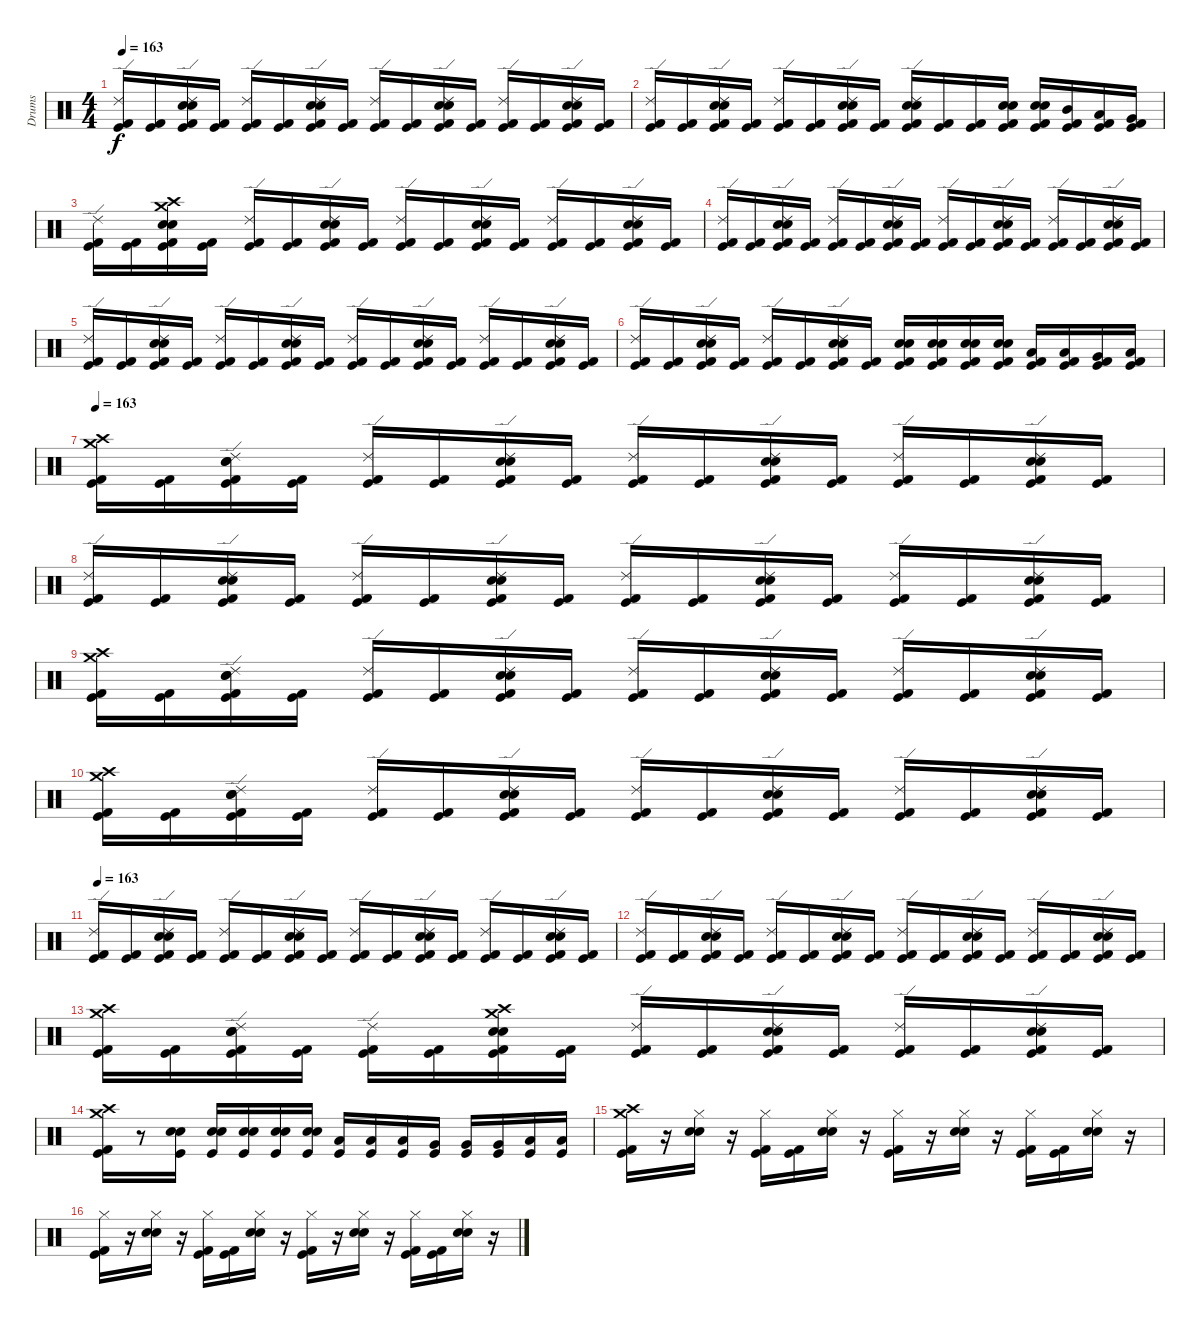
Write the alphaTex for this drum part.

\track ("Drums" "Drums") {instrument percussion}
\staff {score}
\articulation defaults
\ts (4 4)
\tempo 163
\clef neutral
\ks c
("Ride (edge) 2" "Kick (hit) 2" "Kick (hit)").16{dy f} ("Kick (hit) 2" "Kick (hit)").16 ("Ride (edge) 2" "Electric Snare (hit)" "Snare (hit) 2" "Kick (hit) 2" "Kick (hit)").16 ("Kick (hit) 2" "Kick (hit)").16 ("Ride (edge) 2" "Kick (hit) 2" "Kick (hit)").16 ("Kick (hit) 2" "Kick (hit)").16 ("Ride (edge) 2" "Electric Snare (hit)" "Snare (hit) 2" "Kick (hit) 2" "Kick (hit)").16 ("Kick (hit) 2" "Kick (hit)").16 ("Ride (edge) 2" "Kick (hit) 2" "Kick (hit)").16 ("Kick (hit) 2" "Kick (hit)").16 ("Ride (edge) 2" "Electric Snare (hit)" "Snare (hit) 2" "Kick (hit) 2" "Kick (hit)").16 ("Kick (hit) 2" "Kick (hit)").16 ("Ride (edge) 2" "Kick (hit) 2" "Kick (hit)").16 ("Kick (hit) 2" "Kick (hit)").16 ("Ride (edge) 2" "Electric Snare (hit)" "Snare (hit) 2" "Kick (hit) 2" "Kick (hit)").16 ("Kick (hit) 2" "Kick (hit)").16 |
("Ride (edge) 2" "Kick (hit) 2" "Kick (hit)").16 ("Kick (hit) 2" "Kick (hit)").16 ("Ride (edge) 2" "Electric Snare (hit)" "Snare (hit) 2" "Kick (hit) 2" "Kick (hit)").16 ("Kick (hit) 2" "Kick (hit)").16 ("Ride (edge) 2" "Kick (hit) 2" "Kick (hit)").16 ("Kick (hit) 2" "Kick (hit)").16 ("Ride (edge) 2" "Electric Snare (hit)" "Snare (hit) 2" "Kick (hit) 2" "Kick (hit)").16 ("Kick (hit) 2" "Kick (hit)").16 ("Electric Snare (hit)" "Snare (hit) 2" "Ride (edge) 2" "Kick (hit) 2" "Kick (hit)").16 ("Kick (hit) 2" "Kick (hit)").16 ("Kick (hit) 2" "Kick (hit)").16 ("Electric Snare (hit)" "Snare (hit) 2" "Kick (hit) 2" "Kick (hit)").16 ("Electric Snare (hit)" "Snare (hit) 2" "Kick (hit) 2" "Kick (hit)").16 ("Mid Tom (hit)" "Kick (hit) 2" "Kick (hit)").16 ("Low Tom (hit)" "Kick (hit) 2" "Kick (hit)").16 ("Very Low Tom (hit)" "Kick (hit) 2" "Kick (hit)").16 |
("Ride (edge) 2" "Kick (hit) 2" "Kick (hit)").16 ("Kick (hit) 2" "Kick (hit)").16 ("Crash high (hit)" "Crash medium (hit)" "Electric Snare (hit)" "Snare (hit) 2" "Kick (hit) 2" "Kick (hit)").16 ("Kick (hit) 2" "Kick (hit)").16 ("Ride (edge) 2" "Kick (hit) 2" "Kick (hit)").16 ("Kick (hit) 2" "Kick (hit)").16 ("Ride (edge) 2" "Electric Snare (hit)" "Snare (hit) 2" "Kick (hit) 2" "Kick (hit)").16 ("Kick (hit) 2" "Kick (hit)").16 ("Ride (edge) 2" "Kick (hit) 2" "Kick (hit)").16 ("Kick (hit) 2" "Kick (hit)").16 ("Ride (edge) 2" "Electric Snare (hit)" "Snare (hit) 2" "Kick (hit) 2" "Kick (hit)").16 ("Kick (hit) 2" "Kick (hit)").16 ("Ride (edge) 2" "Kick (hit) 2" "Kick (hit)").16 ("Kick (hit) 2" "Kick (hit)").16 ("Ride (edge) 2" "Electric Snare (hit)" "Snare (hit) 2" "Kick (hit) 2" "Kick (hit)").16 ("Kick (hit) 2" "Kick (hit)").16 |
("Ride (edge) 2" "Kick (hit) 2" "Kick (hit)").16 ("Kick (hit) 2" "Kick (hit)").16 ("Ride (edge) 2" "Electric Snare (hit)" "Snare (hit) 2" "Kick (hit) 2" "Kick (hit)").16 ("Kick (hit) 2" "Kick (hit)").16 ("Ride (edge) 2" "Kick (hit) 2" "Kick (hit)").16 ("Kick (hit) 2" "Kick (hit)").16 ("Ride (edge) 2" "Electric Snare (hit)" "Snare (hit) 2" "Kick (hit) 2" "Kick (hit)").16 ("Kick (hit) 2" "Kick (hit)").16 ("Ride (edge) 2" "Kick (hit) 2" "Kick (hit)").16 ("Kick (hit) 2" "Kick (hit)").16 ("Ride (edge) 2" "Electric Snare (hit)" "Snare (hit) 2" "Kick (hit) 2" "Kick (hit)").16 ("Kick (hit) 2" "Kick (hit)").16 ("Ride (edge) 2" "Kick (hit) 2" "Kick (hit)").16 ("Kick (hit) 2" "Kick (hit)").16 ("Ride (edge) 2" "Electric Snare (hit)" "Snare (hit) 2" "Kick (hit) 2" "Kick (hit)").16 ("Kick (hit) 2" "Kick (hit)").16 |
("Ride (edge) 2" "Kick (hit) 2" "Kick (hit)").16 ("Kick (hit) 2" "Kick (hit)").16 ("Ride (edge) 2" "Electric Snare (hit)" "Snare (hit) 2" "Kick (hit) 2" "Kick (hit)").16 ("Kick (hit) 2" "Kick (hit)").16 ("Ride (edge) 2" "Kick (hit) 2" "Kick (hit)").16 ("Kick (hit) 2" "Kick (hit)").16 ("Ride (edge) 2" "Electric Snare (hit)" "Snare (hit) 2" "Kick (hit) 2" "Kick (hit)").16 ("Kick (hit) 2" "Kick (hit)").16 ("Ride (edge) 2" "Kick (hit) 2" "Kick (hit)").16 ("Kick (hit) 2" "Kick (hit)").16 ("Ride (edge) 2" "Electric Snare (hit)" "Snare (hit) 2" "Kick (hit) 2" "Kick (hit)").16 ("Kick (hit) 2" "Kick (hit)").16 ("Ride (edge) 2" "Kick (hit) 2" "Kick (hit)").16 ("Kick (hit) 2" "Kick (hit)").16 ("Ride (edge) 2" "Electric Snare (hit)" "Snare (hit) 2" "Kick (hit) 2" "Kick (hit)").16 ("Kick (hit) 2" "Kick (hit)").16 |
("Ride (edge) 2" "Kick (hit) 2" "Kick (hit)").16 ("Kick (hit) 2" "Kick (hit)").16 ("Ride (edge) 2" "Electric Snare (hit)" "Snare (hit) 2" "Kick (hit) 2" "Kick (hit)").16 ("Kick (hit) 2" "Kick (hit)").16 ("Ride (edge) 2" "Kick (hit) 2" "Kick (hit)").16 ("Kick (hit) 2" "Kick (hit)").16 ("Ride (edge) 2" "Electric Snare (hit)" "Snare (hit) 2" "Kick (hit) 2" "Kick (hit)").16 ("Kick (hit) 2" "Kick (hit)").16 ("Electric Snare (hit)" "Snare (hit) 2" "Kick (hit) 2" "Kick (hit)").16 ("Electric Snare (hit)" "Snare (hit) 2" "Kick (hit) 2" "Kick (hit)").16 ("Electric Snare (hit)" "Snare (hit) 2" "Kick (hit) 2" "Kick (hit)").16 ("Electric Snare (hit)" "Snare (hit) 2" "Kick (hit) 2" "Kick (hit)").16 ("Low Tom (hit)" "Kick (hit) 2" "Kick (hit)").16 ("Low Tom (hit)" "Kick (hit) 2" "Kick (hit)").16 ("Very Low Tom (hit)" "Kick (hit) 2" "Kick (hit)").16 ("Low Floor Tom (hit)" "Kick (hit) 2" "Kick (hit)").16 |
\tempo 163
("Crash high (hit)" "Crash medium (hit)" "Kick (hit) 2" "Kick (hit)").16 ("Kick (hit) 2" "Kick (hit)").16 ("Ride (edge) 2" "Electric Snare (hit)" "Snare (hit) 2" "Kick (hit) 2" "Kick (hit)").16 ("Kick (hit) 2" "Kick (hit)").16 ("Ride (edge) 2" "Kick (hit) 2" "Kick (hit)").16 ("Kick (hit) 2" "Kick (hit)").16 ("Ride (edge) 2" "Electric Snare (hit)" "Snare (hit) 2" "Kick (hit) 2" "Kick (hit)").16 ("Kick (hit) 2" "Kick (hit)").16 ("Ride (edge) 2" "Kick (hit) 2" "Kick (hit)").16 ("Kick (hit) 2" "Kick (hit)").16 ("Ride (edge) 2" "Electric Snare (hit)" "Snare (hit) 2" "Kick (hit) 2" "Kick (hit)").16 ("Kick (hit) 2" "Kick (hit)").16 ("Ride (edge) 2" "Kick (hit) 2" "Kick (hit)").16 ("Kick (hit) 2" "Kick (hit)").16 ("Ride (edge) 2" "Electric Snare (hit)" "Snare (hit) 2" "Kick (hit) 2" "Kick (hit)").16 ("Kick (hit) 2" "Kick (hit)").16 |
("Ride (edge) 2" "Kick (hit) 2" "Kick (hit)").16 ("Kick (hit) 2" "Kick (hit)").16 ("Ride (edge) 2" "Electric Snare (hit)" "Snare (hit) 2" "Kick (hit) 2" "Kick (hit)").16 ("Kick (hit) 2" "Kick (hit)").16 ("Ride (edge) 2" "Kick (hit) 2" "Kick (hit)").16 ("Kick (hit) 2" "Kick (hit)").16 ("Ride (edge) 2" "Electric Snare (hit)" "Snare (hit) 2" "Kick (hit) 2" "Kick (hit)").16 ("Kick (hit) 2" "Kick (hit)").16 ("Ride (edge) 2" "Kick (hit) 2" "Kick (hit)").16 ("Kick (hit) 2" "Kick (hit)").16 ("Ride (edge) 2" "Electric Snare (hit)" "Snare (hit) 2" "Kick (hit) 2" "Kick (hit)").16 ("Kick (hit) 2" "Kick (hit)").16 ("Ride (edge) 2" "Kick (hit) 2" "Kick (hit)").16 ("Kick (hit) 2" "Kick (hit)").16 ("Ride (edge) 2" "Electric Snare (hit)" "Snare (hit) 2" "Kick (hit) 2" "Kick (hit)").16 ("Kick (hit) 2" "Kick (hit)").16 |
("Crash high (hit)" "Crash medium (hit)" "Kick (hit) 2" "Kick (hit)").16 ("Kick (hit) 2" "Kick (hit)").16 ("Ride (edge) 2" "Electric Snare (hit)" "Snare (hit) 2" "Kick (hit) 2" "Kick (hit)").16 ("Kick (hit) 2" "Kick (hit)").16 ("Ride (edge) 2" "Kick (hit) 2" "Kick (hit)").16 ("Kick (hit) 2" "Kick (hit)").16 ("Ride (edge) 2" "Electric Snare (hit)" "Snare (hit) 2" "Kick (hit) 2" "Kick (hit)").16 ("Kick (hit) 2" "Kick (hit)").16 ("Ride (edge) 2" "Kick (hit) 2" "Kick (hit)").16 ("Kick (hit) 2" "Kick (hit)").16 ("Ride (edge) 2" "Electric Snare (hit)" "Snare (hit) 2" "Kick (hit) 2" "Kick (hit)").16 ("Kick (hit) 2" "Kick (hit)").16 ("Ride (edge) 2" "Kick (hit) 2" "Kick (hit)").16 ("Kick (hit) 2" "Kick (hit)").16 ("Ride (edge) 2" "Electric Snare (hit)" "Snare (hit) 2" "Kick (hit) 2" "Kick (hit)").16 ("Kick (hit) 2" "Kick (hit)").16 |
("Crash high (hit)" "Crash medium (hit)" "Kick (hit) 2" "Kick (hit)").16 ("Kick (hit) 2" "Kick (hit)").16 ("Ride (edge) 2" "Electric Snare (hit)" "Snare (hit) 2" "Kick (hit) 2" "Kick (hit)").16 ("Kick (hit) 2" "Kick (hit)").16 ("Ride (edge) 2" "Kick (hit) 2" "Kick (hit)").16 ("Kick (hit) 2" "Kick (hit)").16 ("Ride (edge) 2" "Electric Snare (hit)" "Snare (hit) 2" "Kick (hit) 2" "Kick (hit)").16 ("Kick (hit) 2" "Kick (hit)").16 ("Ride (edge) 2" "Kick (hit) 2" "Kick (hit)").16 ("Kick (hit) 2" "Kick (hit)").16 ("Ride (edge) 2" "Electric Snare (hit)" "Snare (hit) 2" "Kick (hit) 2" "Kick (hit)").16 ("Kick (hit) 2" "Kick (hit)").16 ("Ride (edge) 2" "Kick (hit) 2" "Kick (hit)").16 ("Kick (hit) 2" "Kick (hit)").16 ("Ride (edge) 2" "Electric Snare (hit)" "Snare (hit) 2" "Kick (hit) 2" "Kick (hit)").16 ("Kick (hit) 2" "Kick (hit)").16 |
\tempo 163
("Ride (edge) 2" "Kick (hit) 2" "Kick (hit)").16 ("Kick (hit) 2" "Kick (hit)").16 ("Ride (edge) 2" "Electric Snare (hit)" "Snare (hit) 2" "Kick (hit) 2" "Kick (hit)").16 ("Kick (hit) 2" "Kick (hit)").16 ("Ride (edge) 2" "Kick (hit) 2" "Kick (hit)").16 ("Kick (hit) 2" "Kick (hit)").16 ("Ride (edge) 2" "Electric Snare (hit)" "Snare (hit) 2" "Kick (hit) 2" "Kick (hit)").16 ("Kick (hit) 2" "Kick (hit)").16 ("Ride (edge) 2" "Kick (hit) 2" "Kick (hit)").16 ("Kick (hit) 2" "Kick (hit)").16 ("Ride (edge) 2" "Electric Snare (hit)" "Snare (hit) 2" "Kick (hit) 2" "Kick (hit)").16 ("Kick (hit) 2" "Kick (hit)").16 ("Ride (edge) 2" "Kick (hit) 2" "Kick (hit)").16 ("Kick (hit) 2" "Kick (hit)").16 ("Ride (edge) 2" "Electric Snare (hit)" "Snare (hit) 2" "Kick (hit) 2" "Kick (hit)").16 ("Kick (hit) 2" "Kick (hit)").16 |
("Ride (edge) 2" "Kick (hit) 2" "Kick (hit)").16 ("Kick (hit) 2" "Kick (hit)").16 ("Ride (edge) 2" "Electric Snare (hit)" "Snare (hit) 2" "Kick (hit) 2" "Kick (hit)").16 ("Kick (hit) 2" "Kick (hit)").16 ("Ride (edge) 2" "Kick (hit) 2" "Kick (hit)").16 ("Kick (hit) 2" "Kick (hit)").16 ("Ride (edge) 2" "Electric Snare (hit)" "Snare (hit) 2" "Kick (hit) 2" "Kick (hit)").16 ("Kick (hit) 2" "Kick (hit)").16 ("Ride (edge) 2" "Kick (hit) 2" "Kick (hit)").16 ("Kick (hit) 2" "Kick (hit)").16 ("Ride (edge) 2" "Electric Snare (hit)" "Snare (hit) 2" "Kick (hit) 2" "Kick (hit)").16 ("Kick (hit) 2" "Kick (hit)").16 ("Ride (edge) 2" "Kick (hit) 2" "Kick (hit)").16 ("Kick (hit) 2" "Kick (hit)").16 ("Ride (edge) 2" "Electric Snare (hit)" "Snare (hit) 2" "Kick (hit) 2" "Kick (hit)").16 ("Kick (hit) 2" "Kick (hit)").16 |
("Crash high (hit)" "Crash medium (hit)" "Kick (hit) 2" "Kick (hit)").16 ("Kick (hit) 2" "Kick (hit)").16 ("Ride (edge) 2" "Electric Snare (hit)" "Snare (hit) 2" "Kick (hit) 2" "Kick (hit)").16 ("Kick (hit) 2" "Kick (hit)").16 ("Ride (edge) 2" "Kick (hit) 2" "Kick (hit)").16 ("Kick (hit) 2" "Kick (hit)").16 ("Crash high (hit)" "Crash medium (hit)" "Electric Snare (hit)" "Snare (hit) 2" "Kick (hit) 2" "Kick (hit)").16 ("Kick (hit) 2" "Kick (hit)").16 ("Ride (edge) 2" "Kick (hit) 2" "Kick (hit)").16 ("Kick (hit) 2" "Kick (hit)").16 ("Ride (edge) 2" "Electric Snare (hit)" "Snare (hit) 2" "Kick (hit) 2" "Kick (hit)").16 ("Kick (hit) 2" "Kick (hit)").16 ("Ride (edge) 2" "Kick (hit) 2" "Kick (hit)").16 ("Kick (hit) 2" "Kick (hit)").16 ("Ride (edge) 2" "Electric Snare (hit)" "Snare (hit) 2" "Kick (hit) 2" "Kick (hit)").16 ("Kick (hit) 2" "Kick (hit)").16 |
("Crash high (hit)" "Crash medium (hit)" "Kick (hit) 2" "Kick (hit)").16 r.8 ("Kick (hit)" "Electric Snare (hit)" "Snare (hit) 2").16 ("Kick (hit)" "Electric Snare (hit)" "Snare (hit) 2").16 ("Kick (hit)" "Electric Snare (hit)" "Snare (hit) 2").16 ("Kick (hit)" "Electric Snare (hit)" "Snare (hit) 2").16 ("Kick (hit)" "Electric Snare (hit)" "Snare (hit) 2").16 ("Kick (hit)" "Low Tom (hit)").16 ("Low Tom (hit)" "Kick (hit)").16 ("Low Tom (hit)" "Kick (hit)").16 ("Very Low Tom (hit)" "Kick (hit)").16 ("Very Low Tom (hit)" "Kick (hit)").16 ("Very Low Tom (hit)" "Kick (hit)").16 ("Low Floor Tom (hit)" "Kick (hit)").16 ("Low Floor Tom (hit)" "Kick (hit)").16 |
("Crash high (hit)" "Crash medium (hit)" "Kick (hit) 2" "Kick (hit)").16 r.16 ("Hi-Hat (closed)" "Electric Snare (hit)" "Snare (hit) 2").16 r.16 ("Kick (hit)" "Kick (hit) 2" "Hi-Hat (closed)").16 ("Kick (hit)" "Kick (hit) 2").16 ("Electric Snare (hit)" "Snare (hit) 2" "Hi-Hat (closed)").16 r.16 ("Kick (hit)" "Kick (hit) 2" "Hi-Hat (closed)").16 r.16 ("Electric Snare (hit)" "Snare (hit) 2" "Hi-Hat (closed)").16 r.16 ("Kick (hit) 2" "Kick (hit)" "Hi-Hat (closed)").16 ("Kick (hit) 2" "Kick (hit)").16 ("Electric Snare (hit)" "Snare (hit) 2" "Hi-Hat (closed)").16 r.16 |
("Hi-Hat (closed)" "Kick (hit) 2" "Kick (hit)").16 r.16 ("Hi-Hat (closed)" "Electric Snare (hit)" "Snare (hit) 2").16 r.16 ("Kick (hit)" "Kick (hit) 2" "Hi-Hat (closed)").16 ("Kick (hit)" "Kick (hit) 2").16 ("Electric Snare (hit)" "Snare (hit) 2" "Hi-Hat (closed)").16 r.16 ("Kick (hit)" "Kick (hit) 2" "Hi-Hat (closed)").16 r.16 ("Electric Snare (hit)" "Snare (hit) 2" "Hi-Hat (closed)").16 r.16 ("Kick (hit) 2" "Kick (hit)" "Hi-Hat (closed)").16 ("Kick (hit) 2" "Kick (hit)").16 ("Electric Snare (hit)" "Snare (hit) 2" "Hi-Hat (closed)").16 r.16
